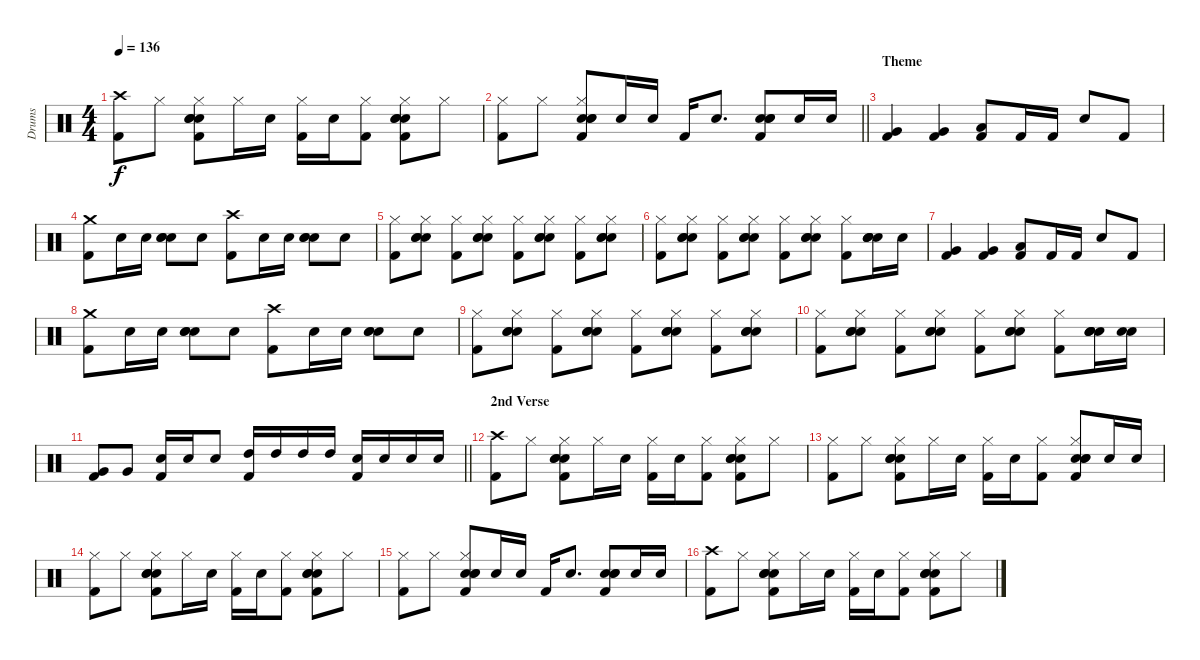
\track ("Drums" "Drums") {instrument percussion}
\staff {score}
\articulation defaults
\ts (4 4)
\tempo 136
\clef neutral
\ks c
("Crash high (hit)" "Kick (hit) 2").8{dy f} "Hi-Hat (closed)".8 ("Hi-Hat (closed)" "Electric Snare (hit)" "Electric Snare (hit)" "Electric Snare (hit)" "Kick (hit) 2").8 "Hi-Hat (closed)".16 "Electric Snare (hit)".16 ("Hi-Hat (closed)" "Kick (hit) 2").16 "Electric Snare (hit)".16 ("Hi-Hat (closed)" "Kick (hit) 2").8 ("Hi-Hat (closed)" "Electric Snare (hit)" "Electric Snare (hit)" "Electric Snare (hit)" "Kick (hit) 2").8 "Hi-Hat (closed)".8 |
\barLineRight lightlight
("Hi-Hat (closed)" "Kick (hit) 2").8 "Hi-Hat (closed)".8 ("Hi-Hat (closed)" "Electric Snare (hit)" "Electric Snare (hit)" "Electric Snare (hit)" "Kick (hit) 2").8 "Electric Snare (hit)".16 "Electric Snare (hit)".16 "Kick (hit) 2".16 "Electric Snare (hit)".8{d} ("Electric Snare (hit)" "Electric Snare (hit)" "Electric Snare (hit)" "Kick (hit) 2").8 "Electric Snare (hit)".16 "Electric Snare (hit)".16 |
\section ("" "Theme")
("Very Low Tom (hit)" "Kick (hit) 2").4 ("Very Low Tom (hit)" "Kick (hit) 2").4 ("Low Tom (hit)" "Kick (hit) 2").8 "Kick (hit) 2".16 "Kick (hit) 2".16 "Electric Snare (hit)".8 "Kick (hit) 2".8 |
("Crash medium (hit)" "Kick (hit) 2").8 "Electric Snare (hit)".16 "Electric Snare (hit)".16 ("Electric Snare (hit)" "Electric Snare (hit)" "Electric Snare (hit)").8 "Electric Snare (hit)".8 ("Crash high (hit)" "Kick (hit) 2").8 "Electric Snare (hit)".16 "Electric Snare (hit)".16 ("Electric Snare (hit)" "Electric Snare (hit)" "Electric Snare (hit)").8 "Electric Snare (hit)".8 |
("Hi-Hat (closed)" "Kick (hit) 2").8 ("Hi-Hat (closed)" "Electric Snare (hit)" "Electric Snare (hit)" "Electric Snare (hit)").8 ("Hi-Hat (closed)" "Kick (hit) 2").8 ("Hi-Hat (closed)" "Electric Snare (hit)" "Electric Snare (hit)" "Electric Snare (hit)").8 ("Hi-Hat (closed)" "Kick (hit) 2").8 ("Hi-Hat (closed)" "Electric Snare (hit)" "Electric Snare (hit)" "Electric Snare (hit)").8 ("Hi-Hat (closed)" "Kick (hit) 2").8 ("Hi-Hat (closed)" "Electric Snare (hit)" "Electric Snare (hit)" "Electric Snare (hit)").8 |
("Hi-Hat (closed)" "Kick (hit) 2").8 ("Hi-Hat (closed)" "Electric Snare (hit)" "Electric Snare (hit)" "Electric Snare (hit)").8 ("Hi-Hat (closed)" "Kick (hit) 2").8 ("Hi-Hat (closed)" "Electric Snare (hit)" "Electric Snare (hit)" "Electric Snare (hit)").8 ("Hi-Hat (closed)" "Kick (hit) 2").8 ("Hi-Hat (closed)" "Electric Snare (hit)" "Electric Snare (hit)" "Electric Snare (hit)").8 ("Hi-Hat (closed)" "Kick (hit) 2").8 ("Electric Snare (hit)" "Electric Snare (hit)" "Electric Snare (hit)" "Electric Snare (hit)").16 "Electric Snare (hit)".16 |
("Very Low Tom (hit)" "Kick (hit) 2").4 ("Very Low Tom (hit)" "Kick (hit) 2").4 ("Low Tom (hit)" "Kick (hit) 2").8 "Kick (hit) 2".16 "Kick (hit) 2".16 "Electric Snare (hit)".8 "Kick (hit) 2".8 |
("Crash medium (hit)" "Kick (hit) 2").8 "Electric Snare (hit)".16 "Electric Snare (hit)".16 ("Electric Snare (hit)" "Electric Snare (hit)" "Electric Snare (hit)").8 "Electric Snare (hit)".8 ("Crash high (hit)" "Kick (hit) 2").8 "Electric Snare (hit)".16 "Electric Snare (hit)".16 ("Electric Snare (hit)" "Electric Snare (hit)" "Electric Snare (hit)").8 "Electric Snare (hit)".8 |
("Hi-Hat (closed)" "Kick (hit) 2").8 ("Hi-Hat (closed)" "Electric Snare (hit)" "Electric Snare (hit)" "Electric Snare (hit)").8 ("Hi-Hat (closed)" "Kick (hit) 2").8 ("Hi-Hat (closed)" "Electric Snare (hit)" "Electric Snare (hit)" "Electric Snare (hit)").8 ("Hi-Hat (closed)" "Kick (hit) 2").8 ("Hi-Hat (closed)" "Electric Snare (hit)" "Electric Snare (hit)" "Electric Snare (hit)").8 ("Hi-Hat (closed)" "Kick (hit) 2").8 ("Hi-Hat (closed)" "Electric Snare (hit)" "Electric Snare (hit)" "Electric Snare (hit)").8 |
("Hi-Hat (closed)" "Kick (hit) 2").8 ("Hi-Hat (closed)" "Electric Snare (hit)" "Electric Snare (hit)" "Electric Snare (hit)").8 ("Hi-Hat (closed)" "Kick (hit) 2").8 ("Hi-Hat (closed)" "Electric Snare (hit)" "Electric Snare (hit)" "Electric Snare (hit)").8 ("Hi-Hat (closed)" "Kick (hit) 2").8 ("Hi-Hat (closed)" "Electric Snare (hit)" "Electric Snare (hit)" "Electric Snare (hit)").8 ("Hi-Hat (closed)" "Kick (hit) 2").8 ("Electric Snare (hit)" "Electric Snare (hit)" "Electric Snare (hit)" "Electric Snare (hit)").16 ("Electric Snare (hit)" "Snare (hit)").16 |
\barLineRight lightlight
("Very Low Tom (hit)" "Kick (hit) 2").8 "Very Low Tom (hit)".8 ("Electric Snare (hit)" "Kick (hit) 2").16 "Electric Snare (hit)".16 "Electric Snare (hit)".8 ("High Tom (hit)" "Kick (hit) 2").16 "High Tom (hit)".16 "High Tom (hit)".16 "High Tom (hit)".16 ("Electric Snare (hit)" "Kick (hit) 2").16 "Electric Snare (hit)".16 "Electric Snare (hit)".16 "Electric Snare (hit)".16 |
\section ("" "2nd Verse")
("Crash high (hit)" "Kick (hit) 2").8 "Hi-Hat (closed)".8 ("Hi-Hat (closed)" "Electric Snare (hit)" "Electric Snare (hit)" "Electric Snare (hit)" "Kick (hit) 2").8 "Hi-Hat (closed)".16 "Electric Snare (hit)".16 ("Hi-Hat (closed)" "Kick (hit) 2").16 "Electric Snare (hit)".16 ("Hi-Hat (closed)" "Kick (hit) 2").8 ("Hi-Hat (closed)" "Electric Snare (hit)" "Electric Snare (hit)" "Electric Snare (hit)" "Kick (hit) 2").8 "Hi-Hat (closed)".8 |
("Hi-Hat (closed)" "Kick (hit) 2").8 "Hi-Hat (closed)".8 ("Hi-Hat (closed)" "Electric Snare (hit)" "Electric Snare (hit)" "Electric Snare (hit)" "Kick (hit) 2").8 "Hi-Hat (closed)".16 "Electric Snare (hit)".16 ("Hi-Hat (closed)" "Kick (hit) 2").16 "Electric Snare (hit)".16 ("Hi-Hat (closed)" "Kick (hit) 2").8 ("Hi-Hat (closed)" "Electric Snare (hit)" "Electric Snare (hit)" "Electric Snare (hit)" "Kick (hit) 2").8 "Electric Snare (hit)".16 "Electric Snare (hit)".16 |
("Hi-Hat (closed)" "Kick (hit) 2").8 "Hi-Hat (closed)".8 ("Hi-Hat (closed)" "Electric Snare (hit)" "Electric Snare (hit)" "Electric Snare (hit)" "Kick (hit) 2").8 "Hi-Hat (closed)".16 "Electric Snare (hit)".16 ("Hi-Hat (closed)" "Kick (hit) 2").16 "Electric Snare (hit)".16 ("Hi-Hat (closed)" "Kick (hit) 2").8 ("Hi-Hat (closed)" "Electric Snare (hit)" "Electric Snare (hit)" "Electric Snare (hit)" "Kick (hit) 2").8 "Hi-Hat (closed)".8 |
("Hi-Hat (closed)" "Kick (hit) 2").8 "Hi-Hat (closed)".8 ("Hi-Hat (closed)" "Electric Snare (hit)" "Electric Snare (hit)" "Electric Snare (hit)" "Kick (hit) 2").8 "Electric Snare (hit)".16 "Electric Snare (hit)".16 "Kick (hit) 2".16 "Electric Snare (hit)".8{d} ("Electric Snare (hit)" "Electric Snare (hit)" "Electric Snare (hit)" "Kick (hit) 2").8 "Electric Snare (hit)".16 "Electric Snare (hit)".16 |
("Crash high (hit)" "Kick (hit) 2").8 "Hi-Hat (closed)".8 ("Hi-Hat (closed)" "Electric Snare (hit)" "Electric Snare (hit)" "Electric Snare (hit)" "Kick (hit) 2").8 "Hi-Hat (closed)".16 "Electric Snare (hit)".16 ("Hi-Hat (closed)" "Kick (hit) 2").16 "Electric Snare (hit)".16 ("Hi-Hat (closed)" "Kick (hit) 2").8 ("Hi-Hat (closed)" "Electric Snare (hit)" "Electric Snare (hit)" "Electric Snare (hit)" "Kick (hit) 2").8 "Hi-Hat (closed)".8
